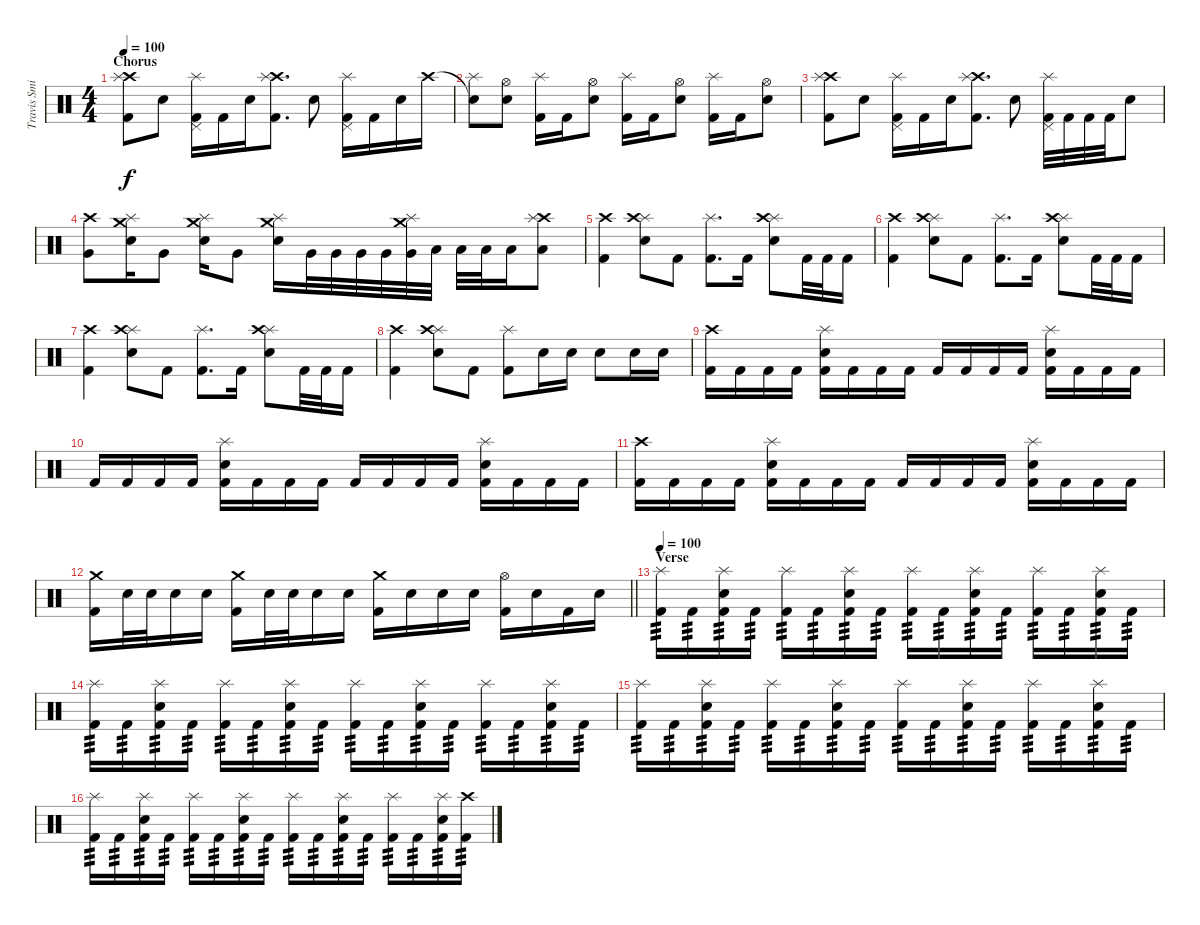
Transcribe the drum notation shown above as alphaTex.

\track ("Travis Smith" "Travis Smi") {instrument percussion}
\staff {score}
\articulation defaults
\ts (4 4)
\section ("" "Chorus")
\tempo 100
\clef neutral
\ks c
("Crash high (hit)" "Splash (hit)" "Kick (hit) 2").8{dy f} "Snare (hit) 2".8 ("Pedal Hi-Hat (hit)" "Splash (hit)" "Kick (hit) 2").16 "Kick (hit) 2".16 "Snare (hit) 2".16 ("Crash high (hit)" "Splash (hit)" "Kick (hit) 2").8{d} "Snare (hit) 2".8 ("Pedal Hi-Hat (hit)" "Splash (hit)" "Kick (hit) 2").16 "Kick (hit) 2".16 "Snare (hit) 2".16 "Crash high (hit)".16 |
("Snare (hit)"{t} "Splash (hit)").8 ("Hi-Hat (open)" "Snare (hit) 2").8 ("Splash (hit)" "Kick (hit) 2").16 "Kick (hit) 2".16 ("Hi-Hat (open)" "Snare (hit) 2").8 ("Splash (hit)" "Kick (hit) 2").16 "Kick (hit) 2".16 ("Hi-Hat (open)" "Snare (hit) 2").8 ("Splash (hit)" "Kick (hit) 2").16 "Kick (hit) 2".16 ("Hi-Hat (open)" "Snare (hit) 2").8 |
("Crash high (hit)" "Splash (hit)" "Kick (hit) 2").8 "Snare (hit) 2".8 ("Pedal Hi-Hat (hit)" "Splash (hit)" "Kick (hit) 2").16 "Kick (hit) 2".16 "Snare (hit) 2".16 ("Crash high (hit)" "Splash (hit)" "Kick (hit) 2").8{d} "Snare (hit) 2".8 ("Pedal Hi-Hat (hit)" "Splash (hit)" "Kick (hit) 2").32 "Kick (hit) 2".32 "Kick (hit) 2".32 "Kick (hit) 2".32 "Snare (hit) 2".8 |
("Crash high (hit)" "Very Low Tom (hit)").8 ("Crash medium (hit)" "Splash (hit)" "Snare (hit) 2").16 "Very Low Tom (hit)".8 ("Crash medium (hit)" "Splash (hit)" "Snare (hit) 2").16 "Very Low Tom (hit)".8 ("Crash medium (hit)" "Splash (hit)" "Snare (hit) 2").16 "Very Low Tom (hit)".32 "Very Low Tom (hit)".32 "Very Low Tom (hit)".32 "Very Low Tom (hit)".32 ("Crash medium (hit)" "Splash (hit)" "Very Low Tom (hit)").32 "Low Tom (hit)".32 "Low Tom (hit)".32 "Low Tom (hit)".32 "Low Tom (hit)".16 ("Crash high (hit)" "Splash (hit)" "Low Tom (hit)").8 |
("Crash high (hit)" "Kick (hit) 2").4 ("Splash (hit)" "Crash high (hit)" "Snare (hit) 2").8 "Kick (hit) 2".8 ("Splash (hit)" "Kick (hit) 2").8{d} "Kick (hit) 2".16 ("Splash (hit)" "Crash high (hit)" "Snare (hit) 2").8 "Kick (hit) 2".32 "Kick (hit) 2".32 "Kick (hit) 2".16 |
("Crash high (hit)" "Kick (hit) 2").4 ("Splash (hit)" "Crash high (hit)" "Snare (hit) 2").8 "Kick (hit) 2".8 ("Splash (hit)" "Kick (hit) 2").8{d} "Kick (hit) 2".16 ("Splash (hit)" "Crash high (hit)" "Snare (hit) 2").8 "Kick (hit) 2".32 "Kick (hit) 2".32 "Kick (hit) 2".16 |
("Crash high (hit)" "Kick (hit) 2").4 ("Splash (hit)" "Crash high (hit)" "Snare (hit) 2").8 "Kick (hit) 2".8 ("Splash (hit)" "Kick (hit) 2").8{d} "Kick (hit) 2".16 ("Splash (hit)" "Crash high (hit)" "Snare (hit) 2").8 "Kick (hit) 2".32 "Kick (hit) 2".32 "Kick (hit) 2".16 |
("Crash high (hit)" "Kick (hit) 2").4 ("Splash (hit)" "Crash high (hit)" "Snare (hit) 2").8 "Kick (hit) 2".8 ("Splash (hit)" "Kick (hit) 2").8 "Snare (hit) 2".16 "Snare (hit) 2".16 "Snare (hit) 2".8 "Snare (hit) 2".16 "Snare (hit) 2".16 |
("Crash high (hit)" "Kick (hit) 2").16 "Kick (hit) 2".16 "Kick (hit) 2".16 "Kick (hit) 2".16 ("Splash (hit)" "Snare (hit) 2" "Kick (hit) 2").16 "Kick (hit) 2".16 "Kick (hit) 2".16 "Kick (hit) 2".16 "Kick (hit) 2".16 "Kick (hit) 2".16 "Kick (hit) 2".16 "Kick (hit) 2".16 ("Splash (hit)" "Snare (hit) 2" "Kick (hit) 2").16 "Kick (hit) 2".16 "Kick (hit) 2".16 "Kick (hit) 2".16 |
"Kick (hit) 2".16 "Kick (hit) 2".16 "Kick (hit) 2".16 "Kick (hit) 2".16 ("Splash (hit)" "Snare (hit) 2" "Kick (hit) 2").16 "Kick (hit) 2".16 "Kick (hit) 2".16 "Kick (hit) 2".16 "Kick (hit) 2".16 "Kick (hit) 2".16 "Kick (hit) 2".16 "Kick (hit) 2".16 ("Splash (hit)" "Snare (hit) 2" "Kick (hit) 2").16 "Kick (hit) 2".16 "Kick (hit) 2".16 "Kick (hit) 2".16 |
("Crash high (hit)" "Kick (hit) 2").16 "Kick (hit) 2".16 "Kick (hit) 2".16 "Kick (hit) 2".16 ("Splash (hit)" "Snare (hit) 2" "Kick (hit) 2").16 "Kick (hit) 2".16 "Kick (hit) 2".16 "Kick (hit) 2".16 "Kick (hit) 2".16 "Kick (hit) 2".16 "Kick (hit) 2".16 "Kick (hit) 2".16 ("Splash (hit)" "Snare (hit) 2" "Kick (hit) 2").16 "Kick (hit) 2".16 "Kick (hit) 2".16 "Kick (hit) 2".16 |
\barLineRight lightlight
("Crash medium (hit)" "Kick (hit) 2").16 "Snare (hit) 2".32 "Snare (hit) 2".32 "Snare (hit) 2".16 "Snare (hit) 2".16 ("Crash medium (hit)" "Kick (hit) 2").16 "Snare (hit) 2".32 "Snare (hit) 2".32 "Snare (hit) 2".16 "Snare (hit) 2".16 ("Crash medium (hit)" "Kick (hit) 2").16 "Snare (hit) 2".16 "Snare (hit) 2".16 "Snare (hit) 2".16 ("Hi-Hat (open)" "Kick (hit) 2").16 "Snare (hit) 2".16 "Kick (hit) 2".16 "Snare (hit) 2".16 |
\section ("" "Verse")
\tempo 100
("Splash (hit)" "Kick (hit) 2").16{tp 3} "Kick (hit) 2".16{tp 3} ("Splash (hit)" "Snare (hit) 2" "Kick (hit) 2").16{tp 3} "Kick (hit) 2".16{tp 3} ("Splash (hit)" "Kick (hit) 2").16{tp 3} "Kick (hit) 2".16{tp 3} ("Splash (hit)" "Snare (hit) 2" "Kick (hit) 2").16{tp 3} "Kick (hit) 2".16{tp 3} ("Splash (hit)" "Kick (hit) 2").16{tp 3} "Kick (hit) 2".16{tp 3} ("Splash (hit)" "Snare (hit) 2" "Kick (hit) 2").16{tp 3} "Kick (hit) 2".16{tp 3} ("Splash (hit)" "Kick (hit) 2").16{tp 3} "Kick (hit) 2".16{tp 3} ("Splash (hit)" "Snare (hit) 2" "Kick (hit) 2").16{tp 3} "Kick (hit) 2".16{tp 3} |
("Splash (hit)" "Kick (hit) 2").16{tp 3} "Kick (hit) 2".16{tp 3} ("Splash (hit)" "Snare (hit) 2" "Kick (hit) 2").16{tp 3} "Kick (hit) 2".16{tp 3} ("Splash (hit)" "Kick (hit) 2").16{tp 3} "Kick (hit) 2".16{tp 3} ("Splash (hit)" "Snare (hit) 2" "Kick (hit) 2").16{tp 3} "Kick (hit) 2".16{tp 3} ("Splash (hit)" "Kick (hit) 2").16{tp 3} "Kick (hit) 2".16{tp 3} ("Splash (hit)" "Snare (hit) 2" "Kick (hit) 2").16{tp 3} "Kick (hit) 2".16{tp 3} ("Splash (hit)" "Kick (hit) 2").16{tp 3} "Kick (hit) 2".16{tp 3} ("Splash (hit)" "Snare (hit) 2" "Kick (hit) 2").16{tp 3} "Kick (hit) 2".16{tp 3} |
("Splash (hit)" "Kick (hit) 2").16{tp 3} "Kick (hit) 2".16{tp 3} ("Splash (hit)" "Snare (hit) 2" "Kick (hit) 2").16{tp 3} "Kick (hit) 2".16{tp 3} ("Splash (hit)" "Kick (hit) 2").16{tp 3} "Kick (hit) 2".16{tp 3} ("Splash (hit)" "Snare (hit) 2" "Kick (hit) 2").16{tp 3} "Kick (hit) 2".16{tp 3} ("Splash (hit)" "Kick (hit) 2").16{tp 3} "Kick (hit) 2".16{tp 3} ("Splash (hit)" "Snare (hit) 2" "Kick (hit) 2").16{tp 3} "Kick (hit) 2".16{tp 3} ("Splash (hit)" "Kick (hit) 2").16{tp 3} "Kick (hit) 2".16{tp 3} ("Splash (hit)" "Snare (hit) 2" "Kick (hit) 2").16{tp 3} "Kick (hit) 2".16{tp 3} |
("Splash (hit)" "Kick (hit) 2").16{tp 3} "Kick (hit) 2".16{tp 3} ("Splash (hit)" "Snare (hit) 2" "Kick (hit) 2").16{tp 3} "Kick (hit) 2".16{tp 3} ("Splash (hit)" "Kick (hit) 2").16{tp 3} "Kick (hit) 2".16{tp 3} ("Splash (hit)" "Snare (hit) 2" "Kick (hit) 2").16{tp 3} "Kick (hit) 2".16{tp 3} ("Splash (hit)" "Kick (hit) 2").16{tp 3} "Kick (hit) 2".16{tp 3} ("Splash (hit)" "Snare (hit) 2" "Kick (hit) 2").16{tp 3} "Kick (hit) 2".16{tp 3} ("Splash (hit)" "Kick (hit) 2").16{tp 3} "Kick (hit) 2".16{tp 3} ("Splash (hit)" "Snare (hit) 2" "Kick (hit) 2").16{tp 3} ("Crash high (hit)" "Kick (hit) 2").16{tp 3}
